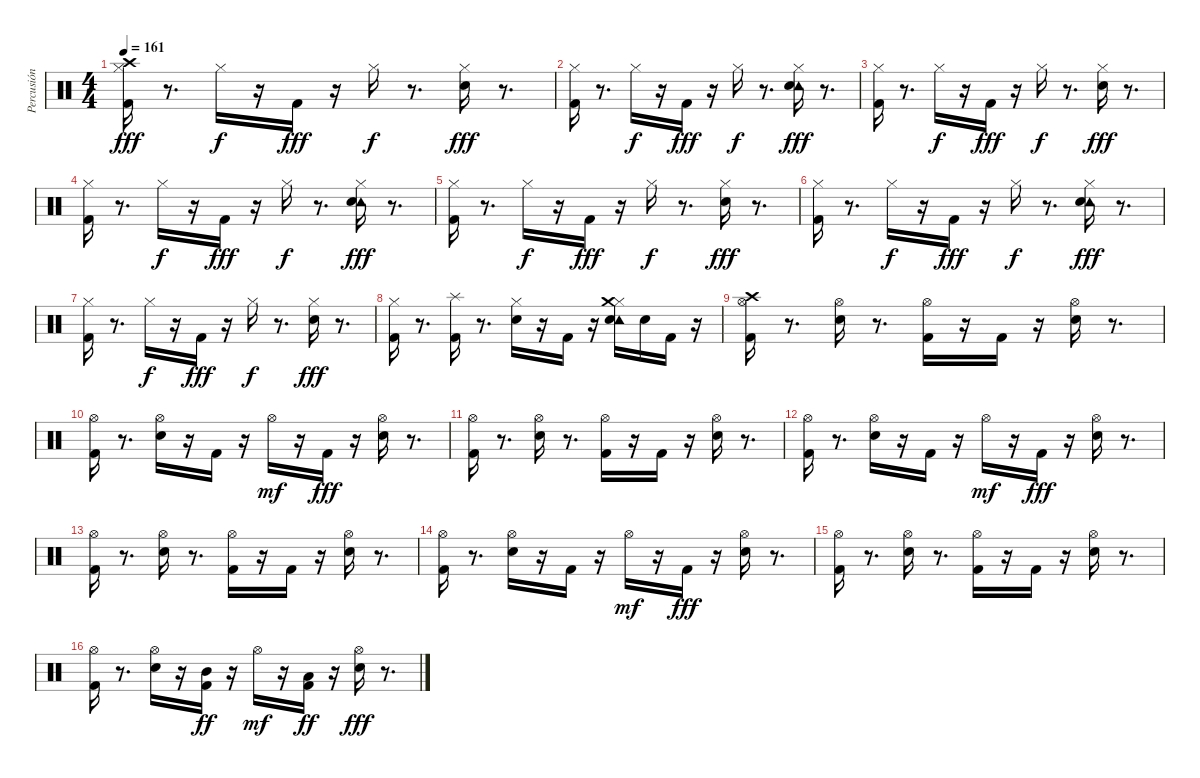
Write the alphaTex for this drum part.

\track ("Percusión" "Percusión") {instrument percussion}
\staff {score}
\articulation defaults
\ts (4 4)
\tempo 161
\clef neutral
\ks c
("Hi-Hat (closed)" "Crash high (hit)" "Kick (hit) 2").16{dy fff} r.8{d} "Hi-Hat (closed)".16{dy f} r.16 "Kick (hit) 2".16{dy fff} r.16 "Hi-Hat (closed)".16{dy f} r.8{d} ("Hi-Hat (closed)" "Snare (hit) 2").16{dy fff} r.8{d} |
("Hi-Hat (closed)" "Kick (hit) 2").16 r.8{d} "Hi-Hat (closed)".16{dy f} r.16 "Kick (hit) 2".16{dy fff} r.16 "Hi-Hat (closed)".16{dy f} r.8{d} ("Hi-Hat (closed)" "Tambourine (hit)" "Snare (hit) 2").16{dy fff} r.8{d} |
("Hi-Hat (closed)" "Kick (hit) 2").16 r.8{d} "Hi-Hat (closed)".16{dy f} r.16 "Kick (hit) 2".16{dy fff} r.16 "Hi-Hat (closed)".16{dy f} r.8{d} ("Hi-Hat (closed)" "Snare (hit) 2").16{dy fff} r.8{d} |
("Hi-Hat (closed)" "Kick (hit) 2").16 r.8{d} "Hi-Hat (closed)".16{dy f} r.16 "Kick (hit) 2".16{dy fff} r.16 "Hi-Hat (closed)".16{dy f} r.8{d} ("Hi-Hat (closed)" "Tambourine (hit)" "Snare (hit) 2").16{dy fff} r.8{d} |
("Hi-Hat (closed)" "Kick (hit) 2").16 r.8{d} "Hi-Hat (closed)".16{dy f} r.16 "Kick (hit) 2".16{dy fff} r.16 "Hi-Hat (closed)".16{dy f} r.8{d} ("Hi-Hat (closed)" "Snare (hit) 2").16{dy fff} r.8{d} |
("Hi-Hat (closed)" "Kick (hit) 2").16 r.8{d} "Hi-Hat (closed)".16{dy f} r.16 "Kick (hit) 2".16{dy fff} r.16 "Hi-Hat (closed)".16{dy f} r.8{d} ("Hi-Hat (closed)" "Tambourine (hit)" "Snare (hit) 2").16{dy fff} r.8{d} |
("Hi-Hat (closed)" "Kick (hit) 2").16 r.8{d} "Hi-Hat (closed)".16{dy f} r.16 "Kick (hit) 2".16{dy fff} r.16 "Hi-Hat (closed)".16{dy f} r.8{d} ("Hi-Hat (closed)" "Snare (hit) 2").16{dy fff} r.8{d} |
("Hi-Hat (closed)" "Kick (hit) 2").16 r.8{d} ("Splash (hit)" "Kick (hit) 2").16 r.8{d} ("Hi-Hat (closed)" "Snare (hit) 2").16 r.16 "Kick (hit) 2".16 r.16 ("Hi-Hat (closed)" "Crash medium (hit)" "Tambourine (hit)" "Snare (hit) 2").16 "Snare (hit) 2".16 "Kick (hit) 2".16 r.16 |
("Hi-Hat (open)" "Crash high (hit)" "Kick (hit) 2").16 r.8{d} ("Hi-Hat (open)" "Snare (hit) 2").16 r.8{d} ("Hi-Hat (open)" "Kick (hit) 2").16 r.16 "Kick (hit) 2".16 r.16 ("Hi-Hat (open)" "Snare (hit) 2").16 r.8{d} |
("Hi-Hat (open)" "Kick (hit) 2").16 r.8{d} ("Hi-Hat (open)" "Snare (hit) 2").16 r.16 "Kick (hit) 2".16 r.16 "Hi-Hat (open)".16{dy mf} r.16 "Kick (hit) 2".16{dy fff} r.16 ("Hi-Hat (open)" "Snare (hit) 2").16 r.8{d} |
("Hi-Hat (open)" "Kick (hit) 2").16 r.8{d} ("Hi-Hat (open)" "Snare (hit) 2").16 r.8{d} ("Hi-Hat (open)" "Kick (hit) 2").16 r.16 "Kick (hit) 2".16 r.16 ("Hi-Hat (open)" "Snare (hit) 2").16 r.8{d} |
("Hi-Hat (open)" "Kick (hit) 2").16 r.8{d} ("Hi-Hat (open)" "Snare (hit) 2").16 r.16 "Kick (hit) 2".16 r.16 "Hi-Hat (open)".16{dy mf} r.16 "Kick (hit) 2".16{dy fff} r.16 ("Hi-Hat (open)" "Snare (hit) 2").16 r.8{d} |
("Hi-Hat (open)" "Kick (hit) 2").16 r.8{d} ("Hi-Hat (open)" "Snare (hit) 2").16 r.8{d} ("Hi-Hat (open)" "Kick (hit) 2").16 r.16 "Kick (hit) 2".16 r.16 ("Hi-Hat (open)" "Snare (hit) 2").16 r.8{d} |
("Hi-Hat (open)" "Kick (hit) 2").16 r.8{d} ("Hi-Hat (open)" "Snare (hit) 2").16 r.16 "Kick (hit) 2".16 r.16 "Hi-Hat (open)".16{dy mf} r.16 "Kick (hit) 2".16{dy fff} r.16 ("Hi-Hat (open)" "Snare (hit) 2").16 r.8{d} |
("Hi-Hat (open)" "Kick (hit) 2").16 r.8{d} ("Hi-Hat (open)" "Snare (hit) 2").16 r.8{d} ("Hi-Hat (open)" "Kick (hit) 2").16 r.16 "Kick (hit) 2".16 r.16 ("Hi-Hat (open)" "Snare (hit) 2").16 r.8{d} |
("Hi-Hat (open)" "Kick (hit) 2").16 r.8{d} ("Hi-Hat (open)" "Snare (hit) 2").16 r.16 ("Mid Tom (hit)" "Kick (hit) 2").16{dy ff} r.16 "Hi-Hat (open)".16{dy mf} r.16 ("Kick (hit) 2" "Low Tom (hit)").16{dy ff} r.16 ("Hi-Hat (open)" "Snare (hit) 2").16{dy fff} r.8{d}
